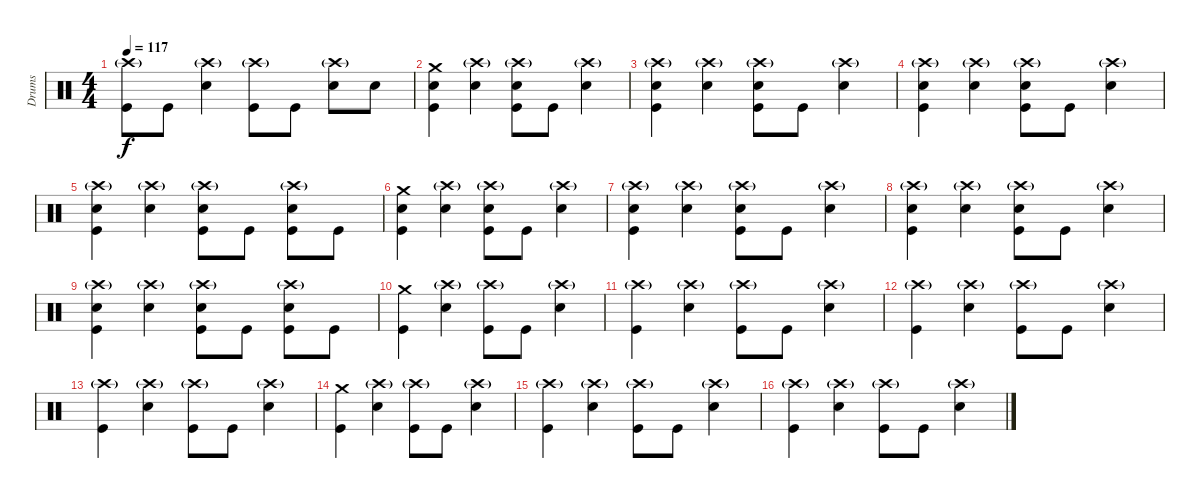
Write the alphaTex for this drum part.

\track ("Drums" "Drums") {instrument percussion}
\staff {score}
\articulation defaults
\ts (4 4)
\tempo 117
\clef neutral
\ks c
("Crash high (hit)"{g} "Kick (hit)").8{dy f} "Kick (hit)".8 ("Crash high (hit)"{g} "Snare (hit) 2").4 ("Crash high (hit)"{g} "Kick (hit)").8 "Kick (hit)".8 ("Crash high (hit)"{g} "Snare (hit) 2").8 "Snare (hit) 2".8 |
("Crash medium (hit)" "Snare (hit) 2" "Kick (hit)").4 ("Crash high (hit)"{g} "Snare (hit) 2").4 ("Crash high (hit)"{g} "Snare (hit) 2" "Kick (hit)").8 "Kick (hit)".8 ("Crash high (hit)"{g} "Snare (hit) 2").4 |
("Crash high (hit)"{g} "Snare (hit) 2" "Kick (hit)").4 ("Crash high (hit)"{g} "Snare (hit) 2").4 ("Crash high (hit)"{g} "Snare (hit) 2" "Kick (hit)").8 "Kick (hit)".8 ("Crash high (hit)"{g} "Snare (hit) 2").4 |
("Crash high (hit)"{g} "Snare (hit) 2" "Kick (hit)").4 ("Crash high (hit)"{g} "Snare (hit) 2").4 ("Crash high (hit)"{g} "Snare (hit) 2" "Kick (hit)").8 "Kick (hit)".8 ("Crash high (hit)"{g} "Snare (hit) 2").4 |
("Crash high (hit)"{g} "Snare (hit) 2" "Kick (hit)").4 ("Crash high (hit)"{g} "Snare (hit) 2").4 ("Crash high (hit)"{g} "Snare (hit) 2" "Kick (hit)").8 "Kick (hit)".8 ("Crash high (hit)"{g} "Snare (hit) 2" "Kick (hit)").8 "Kick (hit)".8 |
("Crash medium (hit)" "Snare (hit) 2" "Kick (hit)").4 ("Crash high (hit)"{g} "Snare (hit) 2").4 ("Crash high (hit)"{g} "Snare (hit) 2" "Kick (hit)").8 "Kick (hit)".8 ("Crash high (hit)"{g} "Snare (hit) 2").4 |
("Crash high (hit)"{g} "Snare (hit) 2" "Kick (hit)").4 ("Crash high (hit)"{g} "Snare (hit) 2").4 ("Crash high (hit)"{g} "Snare (hit) 2" "Kick (hit)").8 "Kick (hit)".8 ("Crash high (hit)"{g} "Snare (hit) 2").4 |
("Crash high (hit)"{g} "Snare (hit) 2" "Kick (hit)").4 ("Crash high (hit)"{g} "Snare (hit) 2").4 ("Crash high (hit)"{g} "Snare (hit) 2" "Kick (hit)").8 "Kick (hit)".8 ("Crash high (hit)"{g} "Snare (hit) 2").4 |
("Crash high (hit)"{g} "Snare (hit) 2" "Kick (hit)").4 ("Crash high (hit)"{g} "Snare (hit) 2").4 ("Crash high (hit)"{g} "Snare (hit) 2" "Kick (hit)").8 "Kick (hit)".8 ("Crash high (hit)"{g} "Snare (hit) 2" "Kick (hit)").8 "Kick (hit)".8 |
("Crash medium (hit)" "Kick (hit)").4 ("Crash high (hit)"{g} "Snare (hit) 2").4 ("Crash high (hit)"{g} "Kick (hit)").8 "Kick (hit)".8 ("Crash high (hit)"{g} "Snare (hit) 2").4 |
("Crash high (hit)"{g} "Kick (hit)").4 ("Crash high (hit)"{g} "Snare (hit) 2").4 ("Crash high (hit)"{g} "Kick (hit)").8 "Kick (hit)".8 ("Crash high (hit)"{g} "Snare (hit) 2").4 |
("Crash high (hit)"{g} "Kick (hit)").4 ("Crash high (hit)"{g} "Snare (hit) 2").4 ("Crash high (hit)"{g} "Kick (hit)").8 "Kick (hit)".8 ("Crash high (hit)"{g} "Snare (hit) 2").4 |
("Crash high (hit)"{g} "Kick (hit)").4 ("Crash high (hit)"{g} "Snare (hit) 2").4 ("Crash high (hit)"{g} "Kick (hit)").8 "Kick (hit)".8 ("Crash high (hit)"{g} "Snare (hit) 2").4 |
("Crash medium (hit)" "Kick (hit)").4 ("Crash high (hit)"{g} "Snare (hit) 2").4 ("Crash high (hit)"{g} "Kick (hit)").8 "Kick (hit)".8 ("Crash high (hit)"{g} "Snare (hit) 2").4 |
("Crash high (hit)"{g} "Kick (hit)").4 ("Crash high (hit)"{g} "Snare (hit) 2").4 ("Crash high (hit)"{g} "Kick (hit)").8 "Kick (hit)".8 ("Crash high (hit)"{g} "Snare (hit) 2").4 |
("Crash high (hit)"{g} "Kick (hit)").4 ("Crash high (hit)"{g} "Snare (hit) 2").4 ("Crash high (hit)"{g} "Kick (hit)").8 "Kick (hit)".8 ("Crash high (hit)"{g} "Snare (hit) 2").4
